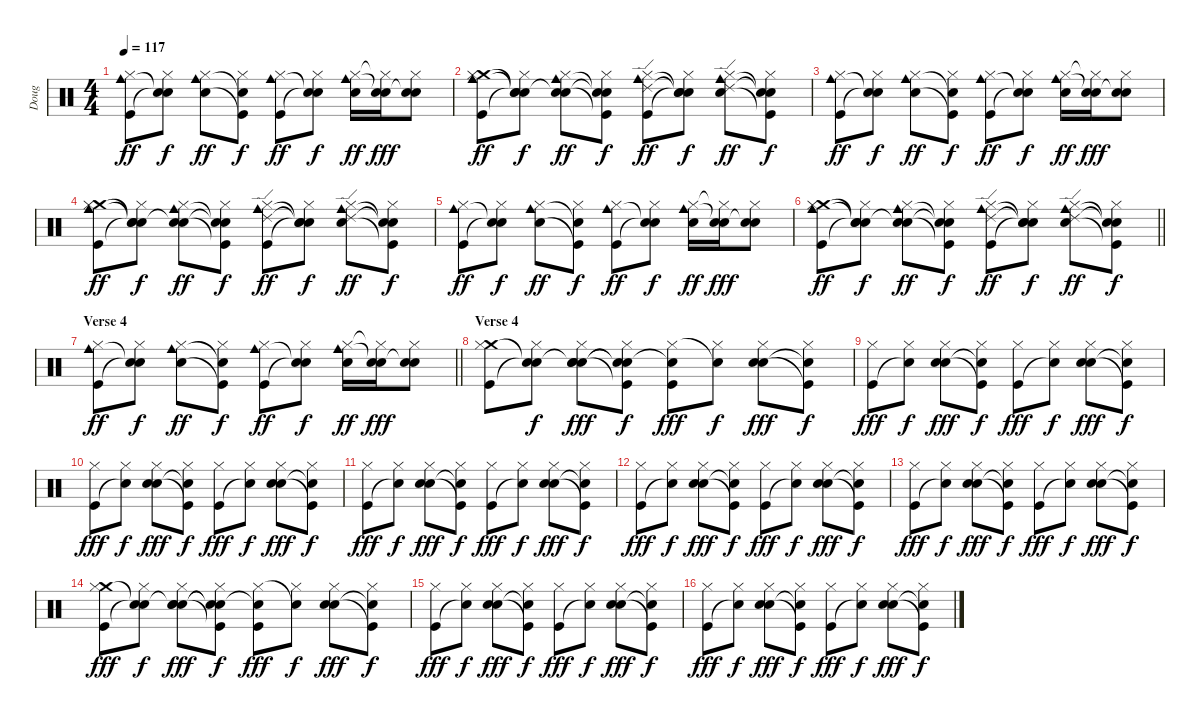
\track ("Doug" "Doug") {instrument percussion}
\staff {score}
\articulation defaults
\ts (4 4)
\tempo 117
\clef neutral
\ks c
("Hi-Hat (closed)" "Kick (hit)" "Cowbell medium (hit)").8{dy ff} ("Hi-Hat (closed)" "Snare (hit)"{t} "Snare (hit)"{t}).8{dy f} ("Hi-Hat (closed)" "Snare (hit) 2" "Cowbell medium (hit)").8{dy ff} ("Hi-Hat (closed)" "Kick (hit)"{t} "Snare (hit)"{t}).8{dy f} ("Hi-Hat (closed)" "Kick (hit)" "Cowbell medium (hit)").8{dy ff} ("Hi-Hat (closed)" "Snare (hit)"{t} "Snare (hit)"{t}).8{dy f} ("Hi-Hat (closed)" "Snare (hit) 2" "Cowbell medium (hit)").16{dy ff} ("Hi-Hat (closed)"{t} "Snare (hit) 2" "Snare (hit)"{t}).16{dy fff} ("Hi-Hat (closed)" "Snare (hit) 2" "Snare (hit)"{t}).8 |
("Crash medium (hit)" "Hi-Hat (closed)" "Kick (hit)" "Cowbell medium (hit)").8{dy ff} ("Snare (hit)"{t} "Hi-Hat (closed)" "Snare (hit)"{t} "Snare (hit)"{t}).8{dy f} ("Snare (hit)"{t} "Hi-Hat (closed)" "Snare (hit) 2" "Cowbell medium (hit)").8{dy ff} ("Snare (hit)"{t} "Hi-Hat (closed)" "Kick (hit)"{t} "Snare (hit)"{t}).8{dy f} ("Ride (edge) 2" "Hi-Hat (closed)" "Kick (hit)" "Cowbell medium (hit)").8{dy ff} ("Snare (hit)"{t} "Hi-Hat (closed)" "Snare (hit)"{t} "Snare (hit)"{t}).8{dy f} ("Ride (edge) 2" "Hi-Hat (closed)" "Snare (hit) 2" "Cowbell medium (hit)").8{dy ff} ("Snare (hit)"{t} "Hi-Hat (closed)" "Kick (hit)"{t} "Snare (hit)"{t}).8{dy f} |
("Hi-Hat (closed)" "Kick (hit)" "Cowbell medium (hit)").8{dy ff} ("Hi-Hat (closed)" "Snare (hit)"{t} "Snare (hit)"{t}).8{dy f} ("Hi-Hat (closed)" "Snare (hit) 2" "Cowbell medium (hit)").8{dy ff} ("Hi-Hat (closed)" "Kick (hit)"{t} "Snare (hit)"{t}).8{dy f} ("Hi-Hat (closed)" "Kick (hit)" "Cowbell medium (hit)").8{dy ff} ("Hi-Hat (closed)" "Snare (hit)"{t} "Snare (hit)"{t}).8{dy f} ("Hi-Hat (closed)" "Snare (hit) 2" "Cowbell medium (hit)").16{dy ff} ("Hi-Hat (closed)"{t} "Snare (hit) 2" "Snare (hit)"{t}).16{dy fff} ("Hi-Hat (closed)" "Snare (hit) 2" "Snare (hit)"{t}).8 |
("Crash medium (hit)" "Hi-Hat (closed)" "Kick (hit)" "Cowbell medium (hit)").8{dy ff} ("Snare (hit)"{t} "Hi-Hat (closed)" "Snare (hit)"{t} "Snare (hit)"{t}).8{dy f} ("Snare (hit)"{t} "Hi-Hat (closed)" "Snare (hit) 2" "Cowbell medium (hit)").8{dy ff} ("Snare (hit)"{t} "Hi-Hat (closed)" "Kick (hit)"{t} "Snare (hit)"{t}).8{dy f} ("Ride (edge) 2" "Hi-Hat (closed)" "Kick (hit)" "Cowbell medium (hit)").8{dy ff} ("Snare (hit)"{t} "Hi-Hat (closed)" "Snare (hit)"{t} "Snare (hit)"{t}).8{dy f} ("Ride (edge) 2" "Hi-Hat (closed)" "Snare (hit) 2" "Cowbell medium (hit)").8{dy ff} ("Snare (hit)"{t} "Hi-Hat (closed)" "Kick (hit)"{t} "Snare (hit)"{t}).8{dy f} |
("Hi-Hat (closed)" "Kick (hit)" "Cowbell medium (hit)").8{dy ff} ("Hi-Hat (closed)" "Snare (hit)"{t} "Snare (hit)"{t}).8{dy f} ("Hi-Hat (closed)" "Snare (hit) 2" "Cowbell medium (hit)").8{dy ff} ("Hi-Hat (closed)" "Kick (hit)"{t} "Snare (hit)"{t}).8{dy f} ("Hi-Hat (closed)" "Kick (hit)" "Cowbell medium (hit)").8{dy ff} ("Hi-Hat (closed)" "Snare (hit)"{t} "Snare (hit)"{t}).8{dy f} ("Hi-Hat (closed)" "Snare (hit) 2" "Cowbell medium (hit)").16{dy ff} ("Hi-Hat (closed)"{t} "Snare (hit) 2" "Snare (hit)"{t}).16{dy fff} ("Hi-Hat (closed)" "Snare (hit) 2" "Snare (hit)"{t}).8 |
\barLineRight lightlight
("Crash medium (hit)" "Hi-Hat (closed)" "Kick (hit)" "Cowbell medium (hit)").8{dy ff} ("Snare (hit)"{t} "Hi-Hat (closed)" "Snare (hit)"{t} "Snare (hit)"{t}).8{dy f} ("Snare (hit)"{t} "Hi-Hat (closed)" "Snare (hit) 2" "Cowbell medium (hit)").8{dy ff} ("Snare (hit)"{t} "Hi-Hat (closed)" "Kick (hit)"{t} "Snare (hit)"{t}).8{dy f} ("Ride (edge) 2" "Hi-Hat (closed)" "Kick (hit)" "Cowbell medium (hit)").8{dy ff} ("Snare (hit)"{t} "Hi-Hat (closed)" "Snare (hit)"{t} "Snare (hit)"{t}).8{dy f} ("Ride (edge) 2" "Hi-Hat (closed)" "Snare (hit) 2" "Cowbell medium (hit)").8{dy ff} ("Snare (hit)"{t} "Hi-Hat (closed)" "Kick (hit)"{t} "Snare (hit)"{t}).8{dy f} |
\section ("" "Verse 4")
\barLineRight lightlight
("Hi-Hat (closed)" "Kick (hit)" "Cowbell medium (hit)").8{dy ff} ("Hi-Hat (closed)" "Snare (hit)"{t} "Snare (hit)"{t}).8{dy f} ("Hi-Hat (closed)" "Snare (hit) 2" "Cowbell medium (hit)").8{dy ff} ("Hi-Hat (closed)" "Kick (hit)"{t} "Snare (hit)"{t}).8{dy f} ("Hi-Hat (closed)" "Kick (hit)" "Cowbell medium (hit)").8{dy ff} ("Hi-Hat (closed)" "Snare (hit)"{t} "Snare (hit)"{t}).8{dy f} ("Hi-Hat (closed)" "Snare (hit) 2" "Cowbell medium (hit)").16{dy ff} ("Hi-Hat (closed)"{t} "Snare (hit) 2" "Snare (hit)"{t}).16{dy fff} ("Hi-Hat (closed)" "Snare (hit) 2" "Snare (hit)"{t}).8 |
\section ("" "Verse 4")
("Crash medium (hit)" "Hi-Hat (closed)" "Kick (hit)").8 ("Snare (hit)"{t} "Hi-Hat (closed)" "Snare (hit)"{t}).8{dy f} ("Snare (hit)"{t} "Hi-Hat (closed)" "Snare (hit) 2" "Hand Clap (hit)").8{dy fff} ("Snare (hit)"{t} "Hi-Hat (closed)" "Kick (hit)"{t} "Snare (hit)"{t}).8{dy f} ("Snare (hit)"{t} "Hi-Hat (closed)" "Kick (hit)").8{dy fff} ("Hi-Hat (closed)" "Snare (hit)"{t}).8{dy f} ("Hi-Hat (closed)" "Snare (hit) 2" "Hand Clap (hit)").8{dy fff} ("Hi-Hat (closed)" "Kick (hit)"{t} "Snare (hit)"{t}).8{dy f} |
("Hi-Hat (closed)" "Kick (hit)").8{dy fff} ("Hi-Hat (closed)" "Snare (hit)"{t}).8{dy f} ("Hand Clap (hit)" "Hi-Hat (closed)" "Snare (hit) 2").8{dy fff} ("Snare (hit)"{t} "Hi-Hat (closed)" "Kick (hit)"{t}).8{dy f} ("Hi-Hat (closed)" "Kick (hit)").8{dy fff} ("Hi-Hat (closed)" "Snare (hit)"{t}).8{dy f} ("Hand Clap (hit)" "Hi-Hat (closed)" "Snare (hit) 2").8{dy fff} ("Snare (hit)"{t} "Hi-Hat (closed)" "Kick (hit)"{t}).8{dy f} |
("Hi-Hat (closed)" "Kick (hit)").8{dy fff} ("Hi-Hat (closed)" "Snare (hit)"{t}).8{dy f} ("Hand Clap (hit)" "Hi-Hat (closed)" "Snare (hit) 2").8{dy fff} ("Snare (hit)"{t} "Hi-Hat (closed)" "Kick (hit)"{t}).8{dy f} ("Hi-Hat (closed)" "Kick (hit)").8{dy fff} ("Hi-Hat (closed)" "Snare (hit)"{t}).8{dy f} ("Hand Clap (hit)" "Hi-Hat (closed)" "Snare (hit) 2").8{dy fff} ("Snare (hit)"{t} "Hi-Hat (closed)" "Kick (hit)"{t}).8{dy f} |
("Hi-Hat (closed)" "Kick (hit)").8{dy fff} ("Hi-Hat (closed)" "Snare (hit)"{t}).8{dy f} ("Hand Clap (hit)" "Hi-Hat (closed)" "Snare (hit) 2").8{dy fff} ("Snare (hit)"{t} "Hi-Hat (closed)" "Kick (hit)"{t}).8{dy f} ("Hi-Hat (closed)" "Kick (hit)").8{dy fff} ("Hi-Hat (closed)" "Snare (hit)"{t}).8{dy f} ("Hand Clap (hit)" "Hi-Hat (closed)" "Snare (hit) 2").8{dy fff} ("Snare (hit)"{t} "Hi-Hat (closed)" "Kick (hit)"{t}).8{dy f} |
("Hi-Hat (closed)" "Kick (hit)").8{dy fff} ("Hi-Hat (closed)" "Snare (hit)"{t}).8{dy f} ("Hand Clap (hit)" "Hi-Hat (closed)" "Snare (hit) 2").8{dy fff} ("Snare (hit)"{t} "Hi-Hat (closed)" "Kick (hit)"{t}).8{dy f} ("Hi-Hat (closed)" "Kick (hit)").8{dy fff} ("Hi-Hat (closed)" "Snare (hit)"{t}).8{dy f} ("Hand Clap (hit)" "Hi-Hat (closed)" "Snare (hit) 2").8{dy fff} ("Snare (hit)"{t} "Hi-Hat (closed)" "Kick (hit)"{t}).8{dy f} |
("Hi-Hat (closed)" "Kick (hit)").8{dy fff} ("Hi-Hat (closed)" "Snare (hit)"{t}).8{dy f} ("Hand Clap (hit)" "Hi-Hat (closed)" "Snare (hit) 2").8{dy fff} ("Snare (hit)"{t} "Hi-Hat (closed)" "Kick (hit)"{t}).8{dy f} ("Hi-Hat (closed)" "Kick (hit)").8{dy fff} ("Hi-Hat (closed)" "Snare (hit)"{t}).8{dy f} ("Hand Clap (hit)" "Hi-Hat (closed)" "Snare (hit) 2").8{dy fff} ("Snare (hit)"{t} "Hi-Hat (closed)" "Kick (hit)"{t}).8{dy f} |
("Crash medium (hit)" "Hi-Hat (closed)" "Kick (hit)").8{dy fff} ("Snare (hit)"{t} "Hi-Hat (closed)" "Snare (hit)"{t}).8{dy f} ("Snare (hit)"{t} "Hi-Hat (closed)" "Snare (hit) 2" "Hand Clap (hit)").8{dy fff} ("Snare (hit)"{t} "Hi-Hat (closed)" "Kick (hit)"{t} "Snare (hit)"{t}).8{dy f} ("Snare (hit)"{t} "Hi-Hat (closed)" "Kick (hit)").8{dy fff} ("Hi-Hat (closed)" "Snare (hit)"{t}).8{dy f} ("Hi-Hat (closed)" "Snare (hit) 2" "Hand Clap (hit)").8{dy fff} ("Hi-Hat (closed)" "Kick (hit)"{t} "Snare (hit)"{t}).8{dy f} |
("Hi-Hat (closed)" "Kick (hit)").8{dy fff} ("Hi-Hat (closed)" "Snare (hit)"{t}).8{dy f} ("Hand Clap (hit)" "Hi-Hat (closed)" "Snare (hit) 2").8{dy fff} ("Snare (hit)"{t} "Hi-Hat (closed)" "Kick (hit)"{t}).8{dy f} ("Hi-Hat (closed)" "Kick (hit)").8{dy fff} ("Hi-Hat (closed)" "Snare (hit)"{t}).8{dy f} ("Hand Clap (hit)" "Hi-Hat (closed)" "Snare (hit) 2").8{dy fff} ("Snare (hit)"{t} "Hi-Hat (closed)" "Kick (hit)"{t}).8{dy f} |
("Hi-Hat (closed)" "Kick (hit)").8{dy fff} ("Hi-Hat (closed)" "Snare (hit)"{t}).8{dy f} ("Hand Clap (hit)" "Hi-Hat (closed)" "Snare (hit) 2").8{dy fff} ("Snare (hit)"{t} "Hi-Hat (closed)" "Kick (hit)"{t}).8{dy f} ("Hi-Hat (closed)" "Kick (hit)").8{dy fff} ("Hi-Hat (closed)" "Snare (hit)"{t}).8{dy f} ("Hand Clap (hit)" "Hi-Hat (closed)" "Snare (hit) 2").8{dy fff} ("Snare (hit)"{t} "Hi-Hat (closed)" "Kick (hit)"{t}).8{dy f}
